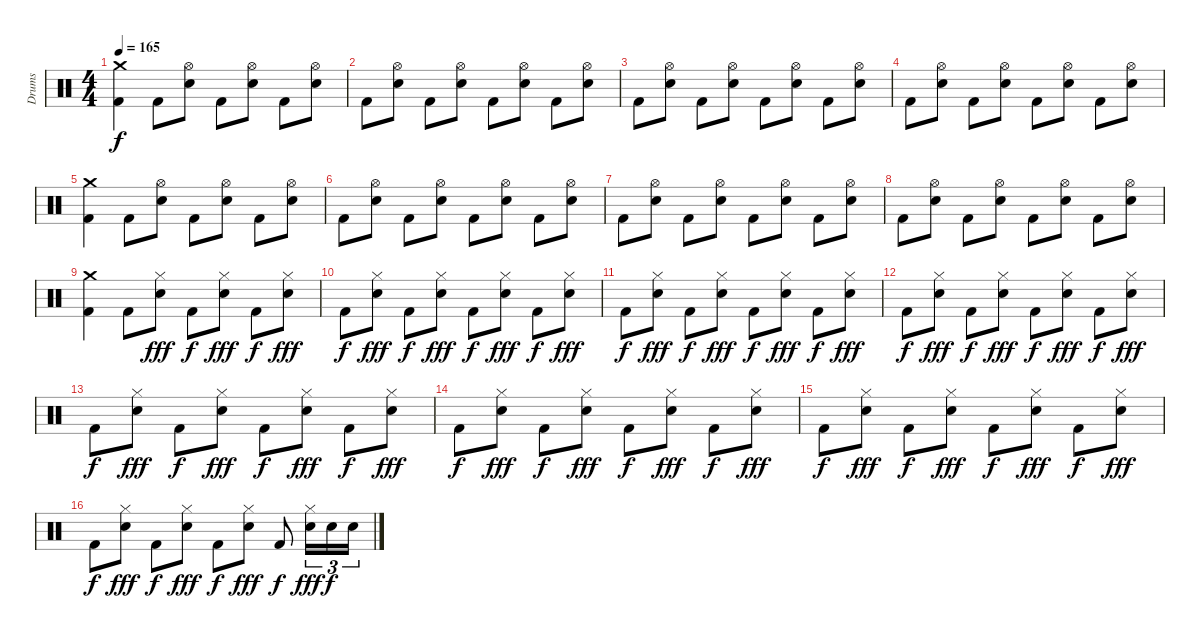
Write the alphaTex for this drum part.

\track ("Drums" "Drums") {instrument percussion}
\staff {score}
\articulation defaults
\ts (4 4)
\tempo 165
\clef neutral
\ks c
("Crash medium (hit)" "Kick (hit) 2").4{dy f} "Kick (hit) 2".8 ("Hi-Hat (open)" "Snare (hit) 2").8 "Kick (hit) 2".8 ("Hi-Hat (open)" "Snare (hit) 2").8 "Kick (hit) 2".8 ("Hi-Hat (open)" "Snare (hit) 2").8 |
"Kick (hit) 2".8 ("Hi-Hat (open)" "Snare (hit) 2").8 "Kick (hit) 2".8 ("Hi-Hat (open)" "Snare (hit) 2").8 "Kick (hit) 2".8 ("Hi-Hat (open)" "Snare (hit) 2").8 "Kick (hit) 2".8 ("Hi-Hat (open)" "Snare (hit) 2").8 |
"Kick (hit) 2".8 ("Hi-Hat (open)" "Snare (hit) 2").8 "Kick (hit) 2".8 ("Hi-Hat (open)" "Snare (hit) 2").8 "Kick (hit) 2".8 ("Hi-Hat (open)" "Snare (hit) 2").8 "Kick (hit) 2".8 ("Hi-Hat (open)" "Snare (hit) 2").8 |
"Kick (hit) 2".8 ("Hi-Hat (open)" "Snare (hit) 2").8 "Kick (hit) 2".8 ("Hi-Hat (open)" "Snare (hit) 2").8 "Kick (hit) 2".8 ("Hi-Hat (open)" "Snare (hit) 2").8 "Kick (hit) 2".8 ("Hi-Hat (open)" "Snare (hit) 2").8 |
("Crash medium (hit)" "Kick (hit) 2").4 "Kick (hit) 2".8 ("Hi-Hat (open)" "Snare (hit) 2").8 "Kick (hit) 2".8 ("Hi-Hat (open)" "Snare (hit) 2").8 "Kick (hit) 2".8 ("Hi-Hat (open)" "Snare (hit) 2").8 |
"Kick (hit) 2".8 ("Hi-Hat (open)" "Snare (hit) 2").8 "Kick (hit) 2".8 ("Hi-Hat (open)" "Snare (hit) 2").8 "Kick (hit) 2".8 ("Hi-Hat (open)" "Snare (hit) 2").8 "Kick (hit) 2".8 ("Hi-Hat (open)" "Snare (hit) 2").8 |
"Kick (hit) 2".8 ("Hi-Hat (open)" "Snare (hit) 2").8 "Kick (hit) 2".8 ("Hi-Hat (open)" "Snare (hit) 2").8 "Kick (hit) 2".8 ("Hi-Hat (open)" "Snare (hit) 2").8 "Kick (hit) 2".8 ("Hi-Hat (open)" "Snare (hit) 2").8 |
"Kick (hit) 2".8 ("Hi-Hat (open)" "Snare (hit) 2").8 "Kick (hit) 2".8 ("Hi-Hat (open)" "Snare (hit) 2").8 "Kick (hit) 2".8 ("Hi-Hat (open)" "Snare (hit) 2").8 "Kick (hit) 2".8 ("Hi-Hat (open)" "Snare (hit) 2").8 |
("Crash medium (hit)" "Kick (hit) 2").4 "Kick (hit) 2".8 ("Hi-Hat (closed)" "Snare (hit) 2").8{dy fff} "Kick (hit) 2".8{dy f} ("Hi-Hat (closed)" "Snare (hit) 2").8{dy fff} "Kick (hit) 2".8{dy f} ("Hi-Hat (closed)" "Snare (hit) 2").8{dy fff} |
"Kick (hit) 2".8{dy f} ("Hi-Hat (closed)" "Snare (hit) 2").8{dy fff} "Kick (hit) 2".8{dy f} ("Hi-Hat (closed)" "Snare (hit) 2").8{dy fff} "Kick (hit) 2".8{dy f} ("Hi-Hat (closed)" "Snare (hit) 2").8{dy fff} "Kick (hit) 2".8{dy f} ("Hi-Hat (closed)" "Snare (hit) 2").8{dy fff} |
"Kick (hit) 2".8{dy f} ("Hi-Hat (closed)" "Snare (hit) 2").8{dy fff} "Kick (hit) 2".8{dy f} ("Hi-Hat (closed)" "Snare (hit) 2").8{dy fff} "Kick (hit) 2".8{dy f} ("Hi-Hat (closed)" "Snare (hit) 2").8{dy fff} "Kick (hit) 2".8{dy f} ("Hi-Hat (closed)" "Snare (hit) 2").8{dy fff} |
"Kick (hit) 2".8{dy f} ("Hi-Hat (closed)" "Snare (hit) 2").8{dy fff} "Kick (hit) 2".8{dy f} ("Hi-Hat (closed)" "Snare (hit) 2").8{dy fff} "Kick (hit) 2".8{dy f} ("Hi-Hat (closed)" "Snare (hit) 2").8{dy fff} "Kick (hit) 2".8{dy f} ("Hi-Hat (closed)" "Snare (hit) 2").8{dy fff} |
"Kick (hit) 2".8{dy f} ("Hi-Hat (closed)" "Snare (hit) 2").8{dy fff} "Kick (hit) 2".8{dy f} ("Hi-Hat (closed)" "Snare (hit) 2").8{dy fff} "Kick (hit) 2".8{dy f} ("Hi-Hat (closed)" "Snare (hit) 2").8{dy fff} "Kick (hit) 2".8{dy f} ("Hi-Hat (closed)" "Snare (hit) 2").8{dy fff} |
"Kick (hit) 2".8{dy f} ("Hi-Hat (closed)" "Snare (hit) 2").8{dy fff} "Kick (hit) 2".8{dy f} ("Hi-Hat (closed)" "Snare (hit) 2").8{dy fff} "Kick (hit) 2".8{dy f} ("Hi-Hat (closed)" "Snare (hit) 2").8{dy fff} "Kick (hit) 2".8{dy f} ("Hi-Hat (closed)" "Snare (hit) 2").8{dy fff} |
"Kick (hit) 2".8{dy f} ("Hi-Hat (closed)" "Snare (hit) 2").8{dy fff} "Kick (hit) 2".8{dy f} ("Hi-Hat (closed)" "Snare (hit) 2").8{dy fff} "Kick (hit) 2".8{dy f} ("Hi-Hat (closed)" "Snare (hit) 2").8{dy fff} "Kick (hit) 2".8{dy f} ("Hi-Hat (closed)" "Snare (hit) 2").8{dy fff} |
"Kick (hit) 2".8{dy f} ("Hi-Hat (closed)" "Snare (hit) 2").8{dy fff} "Kick (hit) 2".8{dy f} ("Hi-Hat (closed)" "Snare (hit) 2").8{dy fff} "Kick (hit) 2".8{dy f} ("Hi-Hat (closed)" "Snare (hit) 2").8{dy fff} "Kick (hit) 2".8{dy f} ("Hi-Hat (closed)" "Snare (hit) 2").16{tu (3 2) dy fff} "Snare (hit) 2".16{tu (3 2) dy f} "Snare (hit) 2".16{tu (3 2)}
